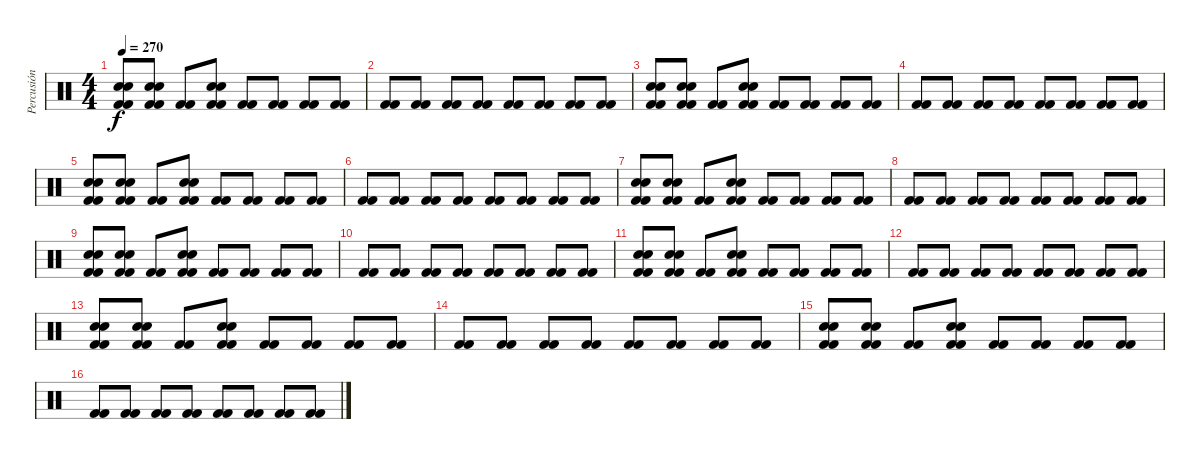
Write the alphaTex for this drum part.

\track ("Percusión" "Percusión") {instrument percussion}
\staff {score}
\articulation defaults
\ts (4 4)
\tempo 270
\clef neutral
\ks c
("Kick (hit) 2" "Kick (hit) 2" "Electric Snare (hit)" "Electric Snare (hit)").8{dy f} ("Kick (hit) 2" "Kick (hit) 2" "Electric Snare (hit)" "Electric Snare (hit)").8 ("Kick (hit) 2" "Kick (hit) 2").8 ("Kick (hit) 2" "Kick (hit) 2" "Electric Snare (hit)" "Electric Snare (hit)").8 ("Kick (hit) 2" "Kick (hit) 2").8 ("Kick (hit) 2" "Kick (hit) 2").8 ("Kick (hit) 2" "Kick (hit) 2").8 ("Kick (hit) 2" "Kick (hit) 2").8 |
("Kick (hit) 2" "Kick (hit) 2").8 ("Kick (hit) 2" "Kick (hit) 2").8 ("Kick (hit) 2" "Kick (hit) 2").8 ("Kick (hit) 2" "Kick (hit) 2").8 ("Kick (hit) 2" "Kick (hit) 2").8 ("Kick (hit) 2" "Kick (hit) 2").8 ("Kick (hit) 2" "Kick (hit) 2").8 ("Kick (hit) 2" "Kick (hit) 2").8 |
("Kick (hit) 2" "Kick (hit) 2" "Electric Snare (hit)" "Electric Snare (hit)").8 ("Kick (hit) 2" "Kick (hit) 2" "Electric Snare (hit)" "Electric Snare (hit)").8 ("Kick (hit) 2" "Kick (hit) 2").8 ("Kick (hit) 2" "Kick (hit) 2" "Electric Snare (hit)" "Electric Snare (hit)").8 ("Kick (hit) 2" "Kick (hit) 2").8 ("Kick (hit) 2" "Kick (hit) 2").8 ("Kick (hit) 2" "Kick (hit) 2").8 ("Kick (hit) 2" "Kick (hit) 2").8 |
("Kick (hit) 2" "Kick (hit) 2").8 ("Kick (hit) 2" "Kick (hit) 2").8 ("Kick (hit) 2" "Kick (hit) 2").8 ("Kick (hit) 2" "Kick (hit) 2").8 ("Kick (hit) 2" "Kick (hit) 2").8 ("Kick (hit) 2" "Kick (hit) 2").8 ("Kick (hit) 2" "Kick (hit) 2").8 ("Kick (hit) 2" "Kick (hit) 2").8 |
("Kick (hit) 2" "Kick (hit) 2" "Electric Snare (hit)" "Electric Snare (hit)").8 ("Kick (hit) 2" "Kick (hit) 2" "Electric Snare (hit)" "Electric Snare (hit)").8 ("Kick (hit) 2" "Kick (hit) 2").8 ("Kick (hit) 2" "Kick (hit) 2" "Electric Snare (hit)" "Electric Snare (hit)").8 ("Kick (hit) 2" "Kick (hit) 2").8 ("Kick (hit) 2" "Kick (hit) 2").8 ("Kick (hit) 2" "Kick (hit) 2").8 ("Kick (hit) 2" "Kick (hit) 2").8 |
("Kick (hit) 2" "Kick (hit) 2").8 ("Kick (hit) 2" "Kick (hit) 2").8 ("Kick (hit) 2" "Kick (hit) 2").8 ("Kick (hit) 2" "Kick (hit) 2").8 ("Kick (hit) 2" "Kick (hit) 2").8 ("Kick (hit) 2" "Kick (hit) 2").8 ("Kick (hit) 2" "Kick (hit) 2").8 ("Kick (hit) 2" "Kick (hit) 2").8 |
("Kick (hit) 2" "Kick (hit) 2" "Electric Snare (hit)" "Electric Snare (hit)").8 ("Kick (hit) 2" "Kick (hit) 2" "Electric Snare (hit)" "Electric Snare (hit)").8 ("Kick (hit) 2" "Kick (hit) 2").8 ("Kick (hit) 2" "Kick (hit) 2" "Electric Snare (hit)" "Electric Snare (hit)").8 ("Kick (hit) 2" "Kick (hit) 2").8 ("Kick (hit) 2" "Kick (hit) 2").8 ("Kick (hit) 2" "Kick (hit) 2").8 ("Kick (hit) 2" "Kick (hit) 2").8 |
("Kick (hit) 2" "Kick (hit) 2").8 ("Kick (hit) 2" "Kick (hit) 2").8 ("Kick (hit) 2" "Kick (hit) 2").8 ("Kick (hit) 2" "Kick (hit) 2").8 ("Kick (hit) 2" "Kick (hit) 2").8 ("Kick (hit) 2" "Kick (hit) 2").8 ("Kick (hit) 2" "Kick (hit) 2").8 ("Kick (hit) 2" "Kick (hit) 2").8 |
("Kick (hit) 2" "Kick (hit) 2" "Electric Snare (hit)" "Electric Snare (hit)").8 ("Kick (hit) 2" "Kick (hit) 2" "Electric Snare (hit)" "Electric Snare (hit)").8 ("Kick (hit) 2" "Kick (hit) 2").8 ("Kick (hit) 2" "Kick (hit) 2" "Electric Snare (hit)" "Electric Snare (hit)").8 ("Kick (hit) 2" "Kick (hit) 2").8 ("Kick (hit) 2" "Kick (hit) 2").8 ("Kick (hit) 2" "Kick (hit) 2").8 ("Kick (hit) 2" "Kick (hit) 2").8 |
("Kick (hit) 2" "Kick (hit) 2").8 ("Kick (hit) 2" "Kick (hit) 2").8 ("Kick (hit) 2" "Kick (hit) 2").8 ("Kick (hit) 2" "Kick (hit) 2").8 ("Kick (hit) 2" "Kick (hit) 2").8 ("Kick (hit) 2" "Kick (hit) 2").8 ("Kick (hit) 2" "Kick (hit) 2").8 ("Kick (hit) 2" "Kick (hit) 2").8 |
("Kick (hit) 2" "Kick (hit) 2" "Electric Snare (hit)" "Electric Snare (hit)").8 ("Kick (hit) 2" "Kick (hit) 2" "Electric Snare (hit)" "Electric Snare (hit)").8 ("Kick (hit) 2" "Kick (hit) 2").8 ("Kick (hit) 2" "Kick (hit) 2" "Electric Snare (hit)" "Electric Snare (hit)").8 ("Kick (hit) 2" "Kick (hit) 2").8 ("Kick (hit) 2" "Kick (hit) 2").8 ("Kick (hit) 2" "Kick (hit) 2").8 ("Kick (hit) 2" "Kick (hit) 2").8 |
("Kick (hit) 2" "Kick (hit) 2").8 ("Kick (hit) 2" "Kick (hit) 2").8 ("Kick (hit) 2" "Kick (hit) 2").8 ("Kick (hit) 2" "Kick (hit) 2").8 ("Kick (hit) 2" "Kick (hit) 2").8 ("Kick (hit) 2" "Kick (hit) 2").8 ("Kick (hit) 2" "Kick (hit) 2").8 ("Kick (hit) 2" "Kick (hit) 2").8 |
("Kick (hit) 2" "Kick (hit) 2" "Electric Snare (hit)" "Electric Snare (hit)").8 ("Kick (hit) 2" "Kick (hit) 2" "Electric Snare (hit)" "Electric Snare (hit)").8 ("Kick (hit) 2" "Kick (hit) 2").8 ("Kick (hit) 2" "Kick (hit) 2" "Electric Snare (hit)" "Electric Snare (hit)").8 ("Kick (hit) 2" "Kick (hit) 2").8 ("Kick (hit) 2" "Kick (hit) 2").8 ("Kick (hit) 2" "Kick (hit) 2").8 ("Kick (hit) 2" "Kick (hit) 2").8 |
("Kick (hit) 2" "Kick (hit) 2").8 ("Kick (hit) 2" "Kick (hit) 2").8 ("Kick (hit) 2" "Kick (hit) 2").8 ("Kick (hit) 2" "Kick (hit) 2").8 ("Kick (hit) 2" "Kick (hit) 2").8 ("Kick (hit) 2" "Kick (hit) 2").8 ("Kick (hit) 2" "Kick (hit) 2").8 ("Kick (hit) 2" "Kick (hit) 2").8 |
("Kick (hit) 2" "Kick (hit) 2" "Electric Snare (hit)" "Electric Snare (hit)").8 ("Kick (hit) 2" "Kick (hit) 2" "Electric Snare (hit)" "Electric Snare (hit)").8 ("Kick (hit) 2" "Kick (hit) 2").8 ("Kick (hit) 2" "Kick (hit) 2" "Electric Snare (hit)" "Electric Snare (hit)").8 ("Kick (hit) 2" "Kick (hit) 2").8 ("Kick (hit) 2" "Kick (hit) 2").8 ("Kick (hit) 2" "Kick (hit) 2").8 ("Kick (hit) 2" "Kick (hit) 2").8 |
("Kick (hit) 2" "Kick (hit) 2").8 ("Kick (hit) 2" "Kick (hit) 2").8 ("Kick (hit) 2" "Kick (hit) 2").8 ("Kick (hit) 2" "Kick (hit) 2").8 ("Kick (hit) 2" "Kick (hit) 2").8 ("Kick (hit) 2" "Kick (hit) 2").8 ("Kick (hit) 2" "Kick (hit) 2").8 ("Kick (hit) 2" "Kick (hit) 2").8
